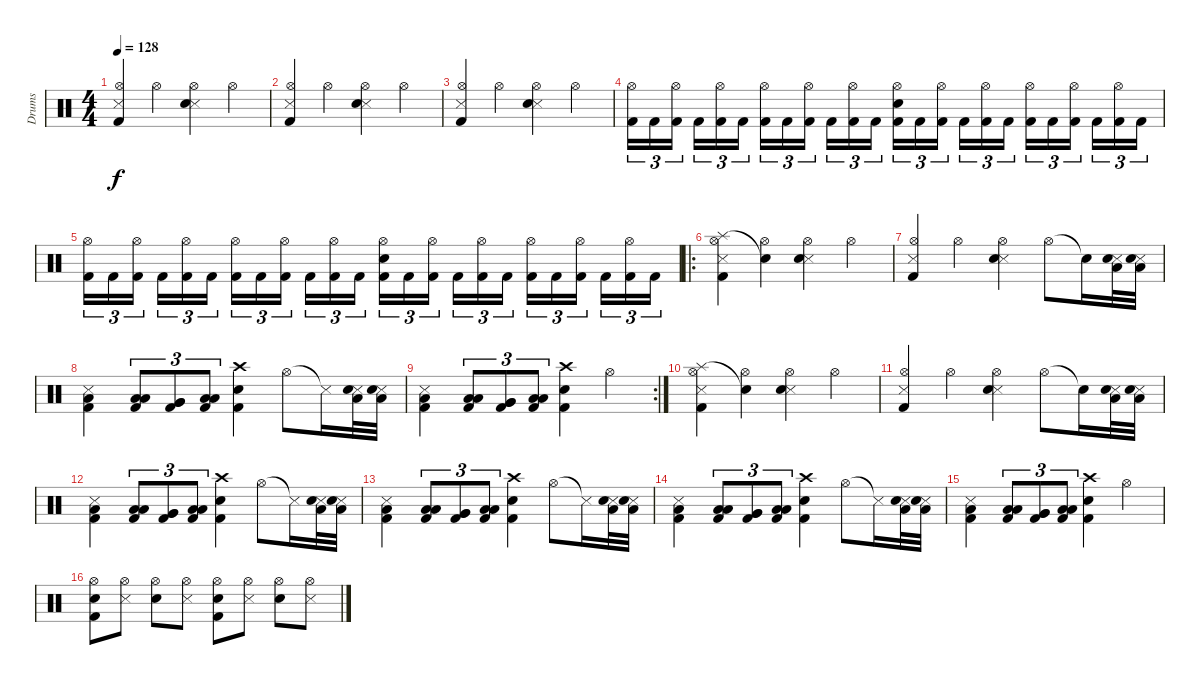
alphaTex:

\track ("Drums" "Drums") {instrument percussion}
\staff {score}
\articulation defaults
\ts (4 4)
\tempo 128
\clef neutral
\ks c
("Snare (side stick) 3" "Hi-Hat (open)" "Kick (hit) 2").4{dy f} "Hi-Hat (open)".4 ("Snare (side stick) 3" "Hi-Hat (open)" "Electric Snare (hit)").4 "Hi-Hat (open)".4 |
("Snare (side stick) 3" "Hi-Hat (open)" "Kick (hit) 2").4 "Hi-Hat (open)".4 ("Snare (side stick) 3" "Hi-Hat (open)" "Electric Snare (hit)").4 "Hi-Hat (open)".4 |
("Snare (side stick) 3" "Hi-Hat (open)" "Kick (hit) 2").4 "Hi-Hat (open)".4 ("Snare (side stick) 3" "Hi-Hat (open)" "Electric Snare (hit)").4 "Hi-Hat (open)".4 |
("Hi-Hat (open)" "Kick (hit) 2").16{tu (3 2)} "Kick (hit) 2".16{tu (3 2)} ("Hi-Hat (open)" "Kick (hit) 2").16{tu (3 2)} "Kick (hit) 2".16{tu (3 2)} ("Hi-Hat (open)" "Kick (hit) 2").16{tu (3 2)} "Kick (hit) 2".16{tu (3 2)} ("Hi-Hat (open)" "Kick (hit) 2").16{tu (3 2)} "Kick (hit) 2".16{tu (3 2)} ("Hi-Hat (open)" "Kick (hit) 2").16{tu (3 2)} "Kick (hit) 2".16{tu (3 2)} ("Hi-Hat (open)" "Kick (hit) 2").16{tu (3 2)} "Kick (hit) 2".16{tu (3 2)} ("Hi-Hat (open)" "Electric Snare (hit)" "Kick (hit) 2").16{tu (3 2)} "Kick (hit) 2".16{tu (3 2)} ("Hi-Hat (open)" "Kick (hit) 2").16{tu (3 2)} "Kick (hit) 2".16{tu (3 2)} ("Hi-Hat (open)" "Kick (hit) 2").16{tu (3 2)} "Kick (hit) 2".16{tu (3 2)} ("Hi-Hat (open)" "Kick (hit) 2").16{tu (3 2)} "Kick (hit) 2".16{tu (3 2)} ("Hi-Hat (open)" "Kick (hit) 2").16{tu (3 2)} "Kick (hit) 2".16{tu (3 2)} ("Hi-Hat (open)" "Kick (hit) 2").16{tu (3 2)} "Kick (hit) 2".16{tu (3 2)} |
("Hi-Hat (open)" "Kick (hit) 2").16{tu (3 2)} "Kick (hit) 2".16{tu (3 2)} ("Hi-Hat (open)" "Kick (hit) 2").16{tu (3 2)} "Kick (hit) 2".16{tu (3 2)} ("Hi-Hat (open)" "Kick (hit) 2").16{tu (3 2)} "Kick (hit) 2".16{tu (3 2)} ("Hi-Hat (open)" "Kick (hit) 2").16{tu (3 2)} "Kick (hit) 2".16{tu (3 2)} ("Hi-Hat (open)" "Kick (hit) 2").16{tu (3 2)} "Kick (hit) 2".16{tu (3 2)} ("Hi-Hat (open)" "Kick (hit) 2").16{tu (3 2)} "Kick (hit) 2".16{tu (3 2)} ("Hi-Hat (open)" "Electric Snare (hit)" "Kick (hit) 2").16{tu (3 2)} "Kick (hit) 2".16{tu (3 2)} ("Hi-Hat (open)" "Kick (hit) 2").16{tu (3 2)} "Kick (hit) 2".16{tu (3 2)} ("Hi-Hat (open)" "Kick (hit) 2").16{tu (3 2)} "Kick (hit) 2".16{tu (3 2)} ("Hi-Hat (open)" "Kick (hit) 2").16{tu (3 2)} "Kick (hit) 2".16{tu (3 2)} ("Hi-Hat (open)" "Kick (hit) 2").16{tu (3 2)} "Kick (hit) 2".16{tu (3 2)} ("Hi-Hat (open)" "Kick (hit) 2").16{tu (3 2)} "Kick (hit) 2".16{tu (3 2)} |
\ro
("Splash (hit)" "Snare (side stick) 3" "Hi-Hat (open)" "Kick (hit) 2").4 ("Snare (hit)"{t} "Hi-Hat (open)").4 ("Snare (side stick) 3" "Hi-Hat (open)" "Electric Snare (hit)").4 "Hi-Hat (open)".4 |
("Snare (side stick) 3" "Hi-Hat (open)" "Kick (hit) 2").4 "Hi-Hat (open)".4 ("Snare (side stick) 3" "Hi-Hat (open)" "Electric Snare (hit)").4 "Hi-Hat (open)".8 "Snare (hit)"{t}.16 ("Snare (side stick) 3" "Low Floor Tom (hit)" "Electric Snare (hit)").32 ("Snare (side stick) 3" "Low Floor Tom (hit)" "Electric Snare (hit)").32 |
("Snare (side stick) 3" "Low Floor Tom (hit)" "Kick (hit) 2").4 ("Low Tom (hit)" "Low Tom (hit)" "Kick (hit) 2").8{tu (3 2)} ("Very Low Tom (hit)" "Very Low Tom (hit)" "Kick (hit) 2").8{tu (3 2)} ("Low Floor Tom (hit)" "Low Floor Tom (hit)" "Kick (hit) 2").8{tu (3 2)} ("Crash high (hit)" "Electric Snare (hit)" "Kick (hit) 2").4 "Hi-Hat (open)".8 "Snare (side stick) 3"{t}.16 ("Snare (side stick) 3" "Low Floor Tom (hit)" "Electric Snare (hit)").32 ("Snare (side stick) 3" "Low Floor Tom (hit)" "Electric Snare (hit)").32 |
\rc 2
("Snare (side stick) 3" "Low Floor Tom (hit)" "Kick (hit) 2").4 ("Low Tom (hit)" "Low Tom (hit)" "Kick (hit) 2").8{tu (3 2)} ("Very Low Tom (hit)" "Very Low Tom (hit)" "Kick (hit) 2").8{tu (3 2)} ("Low Floor Tom (hit)" "Low Floor Tom (hit)" "Kick (hit) 2").8{tu (3 2)} ("Crash high (hit)" "Electric Snare (hit)" "Kick (hit) 2").4 "Hi-Hat (open)".4 |
("Splash (hit)" "Snare (side stick) 3" "Hi-Hat (open)" "Kick (hit) 2").4 ("Snare (hit)"{t} "Hi-Hat (open)").4 ("Snare (side stick) 3" "Hi-Hat (open)" "Electric Snare (hit)").4 "Hi-Hat (open)".4 |
("Snare (side stick) 3" "Hi-Hat (open)" "Kick (hit) 2").4 "Hi-Hat (open)".4 ("Snare (side stick) 3" "Hi-Hat (open)" "Electric Snare (hit)").4 "Hi-Hat (open)".8 "Snare (hit)"{t}.16 ("Snare (side stick) 3" "Low Floor Tom (hit)" "Electric Snare (hit)").32 ("Snare (side stick) 3" "Low Floor Tom (hit)" "Electric Snare (hit)").32 |
("Snare (side stick) 3" "Low Floor Tom (hit)" "Kick (hit) 2").4 ("Low Tom (hit)" "Low Tom (hit)" "Kick (hit) 2").8{tu (3 2)} ("Very Low Tom (hit)" "Very Low Tom (hit)" "Kick (hit) 2").8{tu (3 2)} ("Low Floor Tom (hit)" "Low Floor Tom (hit)" "Kick (hit) 2").8{tu (3 2)} ("Crash high (hit)" "Electric Snare (hit)" "Kick (hit) 2").4 "Hi-Hat (open)".8 "Snare (side stick) 3"{t}.16 ("Snare (side stick) 3" "Low Floor Tom (hit)" "Electric Snare (hit)").32 ("Snare (side stick) 3" "Low Floor Tom (hit)" "Electric Snare (hit)").32 |
("Snare (side stick) 3" "Low Floor Tom (hit)" "Kick (hit) 2").4 ("Low Tom (hit)" "Low Tom (hit)" "Kick (hit) 2").8{tu (3 2)} ("Very Low Tom (hit)" "Very Low Tom (hit)" "Kick (hit) 2").8{tu (3 2)} ("Low Floor Tom (hit)" "Low Floor Tom (hit)" "Kick (hit) 2").8{tu (3 2)} ("Crash high (hit)" "Electric Snare (hit)" "Kick (hit) 2").4 "Hi-Hat (open)".8 "Snare (side stick) 3"{t}.16 ("Snare (side stick) 3" "Low Floor Tom (hit)" "Electric Snare (hit)").32 ("Snare (side stick) 3" "Low Floor Tom (hit)" "Electric Snare (hit)").32 |
("Snare (side stick) 3" "Low Floor Tom (hit)" "Kick (hit) 2").4 ("Low Tom (hit)" "Low Tom (hit)" "Kick (hit) 2").8{tu (3 2)} ("Very Low Tom (hit)" "Very Low Tom (hit)" "Kick (hit) 2").8{tu (3 2)} ("Low Floor Tom (hit)" "Low Floor Tom (hit)" "Kick (hit) 2").8{tu (3 2)} ("Crash high (hit)" "Electric Snare (hit)" "Kick (hit) 2").4 "Hi-Hat (open)".8 "Snare (side stick) 3"{t}.16 ("Snare (side stick) 3" "Low Floor Tom (hit)" "Electric Snare (hit)").32 ("Snare (side stick) 3" "Low Floor Tom (hit)" "Electric Snare (hit)").32 |
("Snare (side stick) 3" "Low Floor Tom (hit)" "Kick (hit) 2").4 ("Low Tom (hit)" "Low Tom (hit)" "Kick (hit) 2").8{tu (3 2)} ("Very Low Tom (hit)" "Very Low Tom (hit)" "Kick (hit) 2").8{tu (3 2)} ("Low Floor Tom (hit)" "Low Floor Tom (hit)" "Kick (hit) 2").8{tu (3 2)} ("Crash high (hit)" "Electric Snare (hit)" "Kick (hit) 2").4 "Hi-Hat (open)".4 |
("Electric Snare (hit)" "Hi-Hat (open)" "Kick (hit) 2").8 ("Hi-Hat (open)" "Snare (side stick) 3").8 ("Electric Snare (hit)" "Hi-Hat (open)").8 ("Hi-Hat (open)" "Snare (side stick) 3").8 ("Electric Snare (hit)" "Hi-Hat (open)" "Kick (hit) 2").8 ("Hi-Hat (open)" "Snare (side stick) 3").8 ("Electric Snare (hit)" "Hi-Hat (open)").8 ("Hi-Hat (open)" "Snare (side stick) 3").8
